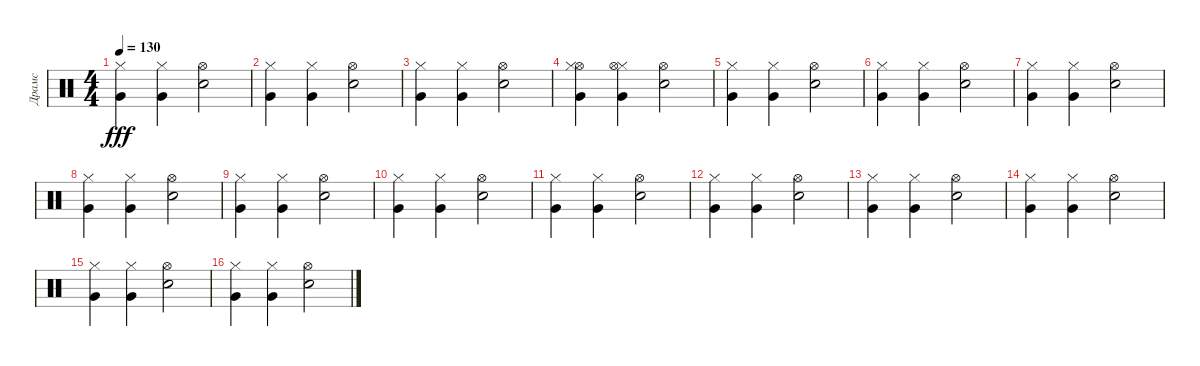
\track ("Драмс" "Драмс") {instrument percussion}
\staff {score}
\articulation defaults
\ts (4 4)
\tempo 130
\clef neutral
\ks c
("Hi-Hat (closed)" "Very Low Tom (hit)").4{dy fff} ("Very Low Tom (hit)" "Hi-Hat (closed)").4 ("Snare (hit) 2" "Hi-Hat (open)").2 |
("Hi-Hat (closed)" "Very Low Tom (hit)").4 ("Very Low Tom (hit)" "Hi-Hat (closed)").4 ("Snare (hit) 2" "Hi-Hat (open)").2 |
("Hi-Hat (closed)" "Very Low Tom (hit)").4 ("Very Low Tom (hit)" "Hi-Hat (closed)").4 ("Snare (hit) 2" "Hi-Hat (open)").2 |
("Hi-Hat (open)" "Hi-Hat (closed)" "Very Low Tom (hit)").4 ("Very Low Tom (hit)" "Hi-Hat (closed)" "Hi-Hat (open)").4 ("Snare (hit) 2" "Hi-Hat (open)").2 |
("Hi-Hat (closed)" "Very Low Tom (hit)").4 ("Very Low Tom (hit)" "Hi-Hat (closed)").4 ("Snare (hit) 2" "Hi-Hat (open)").2 |
("Hi-Hat (closed)" "Very Low Tom (hit)").4 ("Very Low Tom (hit)" "Hi-Hat (closed)").4 ("Snare (hit) 2" "Hi-Hat (open)").2 |
("Hi-Hat (closed)" "Very Low Tom (hit)").4 ("Very Low Tom (hit)" "Hi-Hat (closed)").4 ("Snare (hit) 2" "Hi-Hat (open)").2 |
("Hi-Hat (closed)" "Very Low Tom (hit)").4 ("Very Low Tom (hit)" "Hi-Hat (closed)").4 ("Snare (hit) 2" "Hi-Hat (open)").2 |
("Hi-Hat (closed)" "Very Low Tom (hit)").4 ("Very Low Tom (hit)" "Hi-Hat (closed)").4 ("Snare (hit) 2" "Hi-Hat (open)").2 |
("Hi-Hat (closed)" "Very Low Tom (hit)").4 ("Very Low Tom (hit)" "Hi-Hat (closed)").4 ("Snare (hit) 2" "Hi-Hat (open)").2 |
("Hi-Hat (closed)" "Very Low Tom (hit)").4 ("Very Low Tom (hit)" "Hi-Hat (closed)").4 ("Snare (hit) 2" "Hi-Hat (open)").2 |
("Hi-Hat (closed)" "Very Low Tom (hit)").4 ("Very Low Tom (hit)" "Hi-Hat (closed)").4 ("Snare (hit) 2" "Hi-Hat (open)").2 |
("Hi-Hat (closed)" "Very Low Tom (hit)").4 ("Very Low Tom (hit)" "Hi-Hat (closed)").4 ("Snare (hit) 2" "Hi-Hat (open)").2 |
("Hi-Hat (closed)" "Very Low Tom (hit)").4 ("Very Low Tom (hit)" "Hi-Hat (closed)").4 ("Snare (hit) 2" "Hi-Hat (open)").2 |
("Hi-Hat (closed)" "Very Low Tom (hit)").4 ("Very Low Tom (hit)" "Hi-Hat (closed)").4 ("Snare (hit) 2" "Hi-Hat (open)").2 |
("Hi-Hat (closed)" "Very Low Tom (hit)").4 ("Very Low Tom (hit)" "Hi-Hat (closed)").4 ("Snare (hit) 2" "Hi-Hat (open)").2
